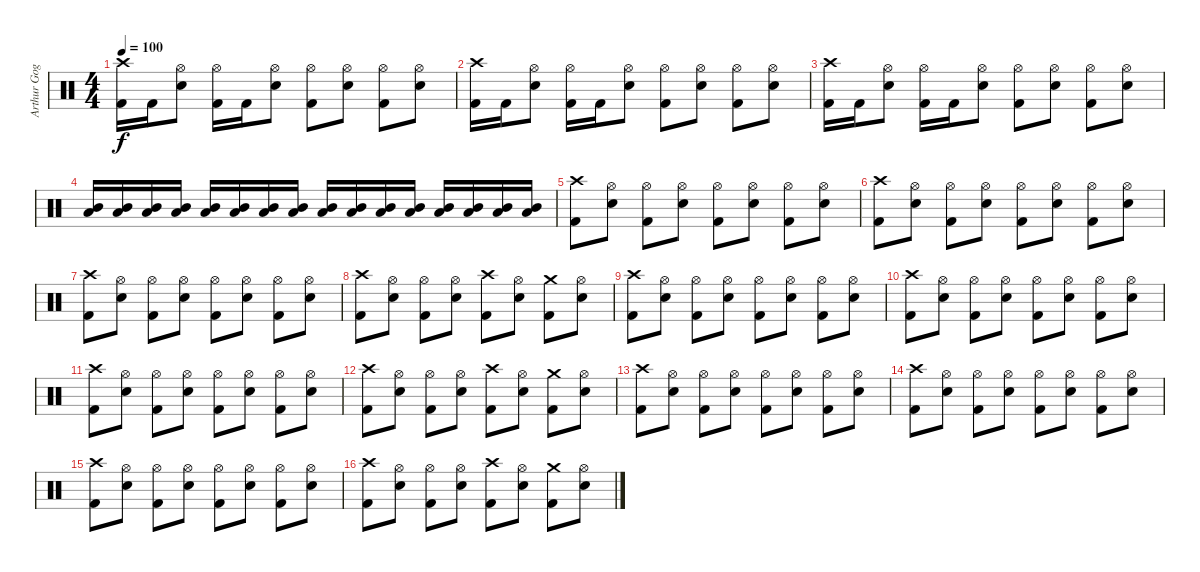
\track ("Arthur Goggy" "Arthur Gog") {instrument percussion}
\staff {score}
\articulation defaults
\ts (4 4)
\tempo 100
\clef neutral
\ks c
("Crash high (hit)" "Kick (hit) 2").16{dy f} "Kick (hit) 2".16 ("Hi-Hat (open)" "Electric Snare (hit)").8 ("Hi-Hat (open)" "Kick (hit) 2").16 "Kick (hit) 2".16 ("Hi-Hat (open)" "Electric Snare (hit)").8 ("Hi-Hat (open)" "Kick (hit) 2").8 ("Hi-Hat (open)" "Electric Snare (hit)").8 ("Hi-Hat (open)" "Kick (hit) 2").8 ("Hi-Hat (open)" "Electric Snare (hit)").8 |
("Crash high (hit)" "Kick (hit) 2").16 "Kick (hit) 2".16 ("Hi-Hat (open)" "Electric Snare (hit)").8 ("Hi-Hat (open)" "Kick (hit) 2").16 "Kick (hit) 2".16 ("Hi-Hat (open)" "Electric Snare (hit)").8 ("Hi-Hat (open)" "Kick (hit) 2").8 ("Hi-Hat (open)" "Electric Snare (hit)").8 ("Hi-Hat (open)" "Kick (hit) 2").8 ("Hi-Hat (open)" "Electric Snare (hit)").8 |
("Crash high (hit)" "Kick (hit) 2").16 "Kick (hit) 2".16 ("Hi-Hat (open)" "Electric Snare (hit)").8 ("Hi-Hat (open)" "Kick (hit) 2").16 "Kick (hit) 2".16 ("Hi-Hat (open)" "Electric Snare (hit)").8 ("Hi-Hat (open)" "Kick (hit) 2").8 ("Hi-Hat (open)" "Electric Snare (hit)").8 ("Hi-Hat (open)" "Kick (hit) 2").8 ("Hi-Hat (open)" "Electric Snare (hit)").8 |
("Mid Tom (hit)" "Low Tom (hit)").16 ("Mid Tom (hit)" "Low Tom (hit)").16 ("Mid Tom (hit)" "Low Tom (hit)").16 ("Mid Tom (hit)" "Low Tom (hit)").16 ("Mid Tom (hit)" "Low Tom (hit)").16 ("Mid Tom (hit)" "Low Tom (hit)").16 ("Mid Tom (hit)" "Low Tom (hit)").16 ("Mid Tom (hit)" "Low Tom (hit)").16 ("Mid Tom (hit)" "Low Tom (hit)").16 ("Mid Tom (hit)" "Low Tom (hit)").16 ("Mid Tom (hit)" "Low Tom (hit)").16 ("Mid Tom (hit)" "Low Tom (hit)").16 ("Mid Tom (hit)" "Low Tom (hit)").16 ("Mid Tom (hit)" "Low Tom (hit)").16 ("Mid Tom (hit)" "Low Tom (hit)").16 ("Mid Tom (hit)" "Low Tom (hit)").16 |
("Crash high (hit)" "Kick (hit) 2").8 ("Hi-Hat (open)" "Electric Snare (hit)").8 ("Hi-Hat (open)" "Kick (hit) 2").8 ("Hi-Hat (open)" "Electric Snare (hit)").8 ("Hi-Hat (open)" "Kick (hit) 2").8 ("Hi-Hat (open)" "Electric Snare (hit)").8 ("Hi-Hat (open)" "Kick (hit) 2").8 ("Hi-Hat (open)" "Electric Snare (hit)").8 |
("Crash high (hit)" "Kick (hit) 2").8 ("Hi-Hat (open)" "Electric Snare (hit)").8 ("Hi-Hat (open)" "Kick (hit) 2").8 ("Hi-Hat (open)" "Electric Snare (hit)").8 ("Hi-Hat (open)" "Kick (hit) 2").8 ("Hi-Hat (open)" "Electric Snare (hit)").8 ("Hi-Hat (open)" "Kick (hit) 2").8 ("Hi-Hat (open)" "Electric Snare (hit)").8 |
("Crash high (hit)" "Kick (hit) 2").8 ("Hi-Hat (open)" "Electric Snare (hit)").8 ("Hi-Hat (open)" "Kick (hit) 2").8 ("Hi-Hat (open)" "Electric Snare (hit)").8 ("Hi-Hat (open)" "Kick (hit) 2").8 ("Hi-Hat (open)" "Electric Snare (hit)").8 ("Hi-Hat (open)" "Kick (hit) 2").8 ("Hi-Hat (open)" "Electric Snare (hit)").8 |
("Crash high (hit)" "Kick (hit) 2").8 ("Hi-Hat (open)" "Electric Snare (hit)").8 ("Hi-Hat (open)" "Kick (hit) 2").8 ("Hi-Hat (open)" "Electric Snare (hit)").8 ("Crash high (hit)" "Kick (hit) 2").8 ("Hi-Hat (open)" "Electric Snare (hit)").8 ("Crash medium (hit)" "Kick (hit) 2").8 ("Hi-Hat (open)" "Electric Snare (hit)").8 |
("Crash high (hit)" "Kick (hit) 2").8 ("Hi-Hat (open)" "Electric Snare (hit)").8 ("Hi-Hat (open)" "Kick (hit) 2").8 ("Hi-Hat (open)" "Electric Snare (hit)").8 ("Hi-Hat (open)" "Kick (hit) 2").8 ("Hi-Hat (open)" "Electric Snare (hit)").8 ("Hi-Hat (open)" "Kick (hit) 2").8 ("Hi-Hat (open)" "Electric Snare (hit)").8 |
("Crash high (hit)" "Kick (hit) 2").8 ("Hi-Hat (open)" "Electric Snare (hit)").8 ("Hi-Hat (open)" "Kick (hit) 2").8 ("Hi-Hat (open)" "Electric Snare (hit)").8 ("Hi-Hat (open)" "Kick (hit) 2").8 ("Hi-Hat (open)" "Electric Snare (hit)").8 ("Hi-Hat (open)" "Kick (hit) 2").8 ("Hi-Hat (open)" "Electric Snare (hit)").8 |
("Crash high (hit)" "Kick (hit) 2").8 ("Hi-Hat (open)" "Electric Snare (hit)").8 ("Hi-Hat (open)" "Kick (hit) 2").8 ("Hi-Hat (open)" "Electric Snare (hit)").8 ("Hi-Hat (open)" "Kick (hit) 2").8 ("Hi-Hat (open)" "Electric Snare (hit)").8 ("Hi-Hat (open)" "Kick (hit) 2").8 ("Hi-Hat (open)" "Electric Snare (hit)").8 |
("Crash high (hit)" "Kick (hit) 2").8 ("Hi-Hat (open)" "Electric Snare (hit)").8 ("Hi-Hat (open)" "Kick (hit) 2").8 ("Hi-Hat (open)" "Electric Snare (hit)").8 ("Crash high (hit)" "Kick (hit) 2").8 ("Hi-Hat (open)" "Electric Snare (hit)").8 ("Crash medium (hit)" "Kick (hit) 2").8 ("Hi-Hat (open)" "Electric Snare (hit)").8 |
("Crash high (hit)" "Kick (hit) 2").8 ("Hi-Hat (open)" "Electric Snare (hit)").8 ("Hi-Hat (open)" "Kick (hit) 2").8 ("Hi-Hat (open)" "Electric Snare (hit)").8 ("Hi-Hat (open)" "Kick (hit) 2").8 ("Hi-Hat (open)" "Electric Snare (hit)").8 ("Hi-Hat (open)" "Kick (hit) 2").8 ("Hi-Hat (open)" "Electric Snare (hit)").8 |
("Crash high (hit)" "Kick (hit) 2").8 ("Hi-Hat (open)" "Electric Snare (hit)").8 ("Hi-Hat (open)" "Kick (hit) 2").8 ("Hi-Hat (open)" "Electric Snare (hit)").8 ("Hi-Hat (open)" "Kick (hit) 2").8 ("Hi-Hat (open)" "Electric Snare (hit)").8 ("Hi-Hat (open)" "Kick (hit) 2").8 ("Hi-Hat (open)" "Electric Snare (hit)").8 |
("Crash high (hit)" "Kick (hit) 2").8 ("Hi-Hat (open)" "Electric Snare (hit)").8 ("Hi-Hat (open)" "Kick (hit) 2").8 ("Hi-Hat (open)" "Electric Snare (hit)").8 ("Hi-Hat (open)" "Kick (hit) 2").8 ("Hi-Hat (open)" "Electric Snare (hit)").8 ("Hi-Hat (open)" "Kick (hit) 2").8 ("Hi-Hat (open)" "Electric Snare (hit)").8 |
("Crash high (hit)" "Kick (hit) 2").8 ("Hi-Hat (open)" "Electric Snare (hit)").8 ("Hi-Hat (open)" "Kick (hit) 2").8 ("Hi-Hat (open)" "Electric Snare (hit)").8 ("Crash high (hit)" "Kick (hit) 2").8 ("Hi-Hat (open)" "Electric Snare (hit)").8 ("Crash medium (hit)" "Kick (hit) 2").8 ("Hi-Hat (open)" "Electric Snare (hit)").8
